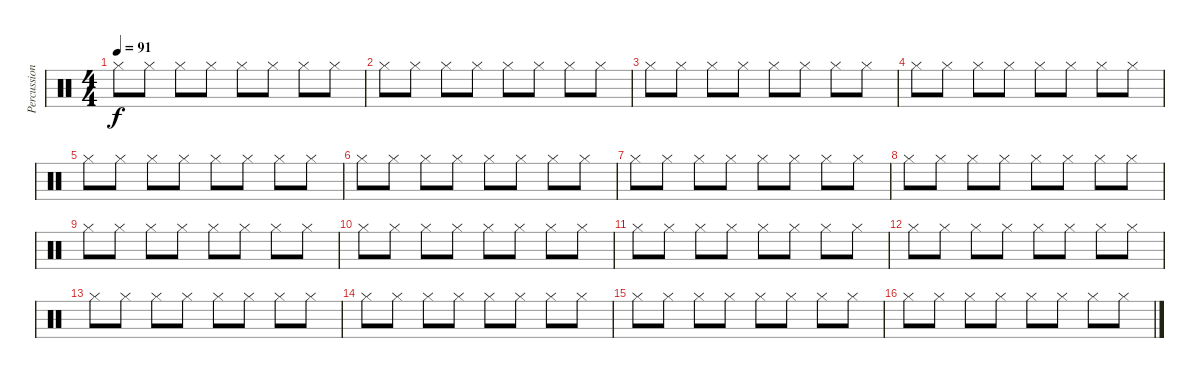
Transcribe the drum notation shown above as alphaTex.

\track ("Percussion" "Percussion") {instrument percussion}
\staff {score}
\articulation defaults
\ts (4 4)
\tempo 91
\clef neutral
\ks c "Hi-Hat (closed)".8{dy f} "Hi-Hat (closed)".8 "Hi-Hat (closed)".8 "Hi-Hat (closed)".8 "Hi-Hat (closed)".8 "Hi-Hat (closed)".8 "Hi-Hat (closed)".8 "Hi-Hat (closed)".8
|
"Hi-Hat (closed)".8 "Hi-Hat (closed)".8 "Hi-Hat (closed)".8 "Hi-Hat (closed)".8 "Hi-Hat (closed)".8 "Hi-Hat (closed)".8 "Hi-Hat (closed)".8 "Hi-Hat (closed)".8 |
"Hi-Hat (closed)".8 "Hi-Hat (closed)".8 "Hi-Hat (closed)".8 "Hi-Hat (closed)".8 "Hi-Hat (closed)".8 "Hi-Hat (closed)".8 "Hi-Hat (closed)".8 "Hi-Hat (closed)".8 |
"Hi-Hat (closed)".8 "Hi-Hat (closed)".8 "Hi-Hat (closed)".8 "Hi-Hat (closed)".8 "Hi-Hat (closed)".8 "Hi-Hat (closed)".8 "Hi-Hat (closed)".8 "Hi-Hat (closed)".8 |
"Hi-Hat (closed)".8 "Hi-Hat (closed)".8 "Hi-Hat (closed)".8 "Hi-Hat (closed)".8 "Hi-Hat (closed)".8 "Hi-Hat (closed)".8 "Hi-Hat (closed)".8 "Hi-Hat (closed)".8 |
"Hi-Hat (closed)".8 "Hi-Hat (closed)".8 "Hi-Hat (closed)".8 "Hi-Hat (closed)".8 "Hi-Hat (closed)".8 "Hi-Hat (closed)".8 "Hi-Hat (closed)".8 "Hi-Hat (closed)".8 |
"Hi-Hat (closed)".8 "Hi-Hat (closed)".8 "Hi-Hat (closed)".8 "Hi-Hat (closed)".8 "Hi-Hat (closed)".8 "Hi-Hat (closed)".8 "Hi-Hat (closed)".8 "Hi-Hat (closed)".8 |
"Hi-Hat (closed)".8 "Hi-Hat (closed)".8 "Hi-Hat (closed)".8 "Hi-Hat (closed)".8 "Hi-Hat (closed)".8 "Hi-Hat (closed)".8 "Hi-Hat (closed)".8 "Hi-Hat (closed)".8 |
"Hi-Hat (closed)".8 "Hi-Hat (closed)".8 "Hi-Hat (closed)".8 "Hi-Hat (closed)".8 "Hi-Hat (closed)".8 "Hi-Hat (closed)".8 "Hi-Hat (closed)".8 "Hi-Hat (closed)".8 |
"Hi-Hat (closed)".8 "Hi-Hat (closed)".8 "Hi-Hat (closed)".8 "Hi-Hat (closed)".8 "Hi-Hat (closed)".8 "Hi-Hat (closed)".8 "Hi-Hat (closed)".8 "Hi-Hat (closed)".8 |
"Hi-Hat (closed)".8 "Hi-Hat (closed)".8 "Hi-Hat (closed)".8 "Hi-Hat (closed)".8 "Hi-Hat (closed)".8 "Hi-Hat (closed)".8 "Hi-Hat (closed)".8 "Hi-Hat (closed)".8 |
"Hi-Hat (closed)".8 "Hi-Hat (closed)".8 "Hi-Hat (closed)".8 "Hi-Hat (closed)".8 "Hi-Hat (closed)".8 "Hi-Hat (closed)".8 "Hi-Hat (closed)".8 "Hi-Hat (closed)".8 |
"Hi-Hat (closed)".8 "Hi-Hat (closed)".8 "Hi-Hat (closed)".8 "Hi-Hat (closed)".8 "Hi-Hat (closed)".8 "Hi-Hat (closed)".8 "Hi-Hat (closed)".8 "Hi-Hat (closed)".8 |
"Hi-Hat (closed)".8 "Hi-Hat (closed)".8 "Hi-Hat (closed)".8 "Hi-Hat (closed)".8 "Hi-Hat (closed)".8 "Hi-Hat (closed)".8 "Hi-Hat (closed)".8 "Hi-Hat (closed)".8 |
"Hi-Hat (closed)".8 "Hi-Hat (closed)".8 "Hi-Hat (closed)".8 "Hi-Hat (closed)".8 "Hi-Hat (closed)".8 "Hi-Hat (closed)".8 "Hi-Hat (closed)".8 "Hi-Hat (closed)".8 |
"Hi-Hat (closed)".8 "Hi-Hat (closed)".8 "Hi-Hat (closed)".8 "Hi-Hat (closed)".8 "Hi-Hat (closed)".8 "Hi-Hat (closed)".8 "Hi-Hat (closed)".8 "Hi-Hat (closed)".8
